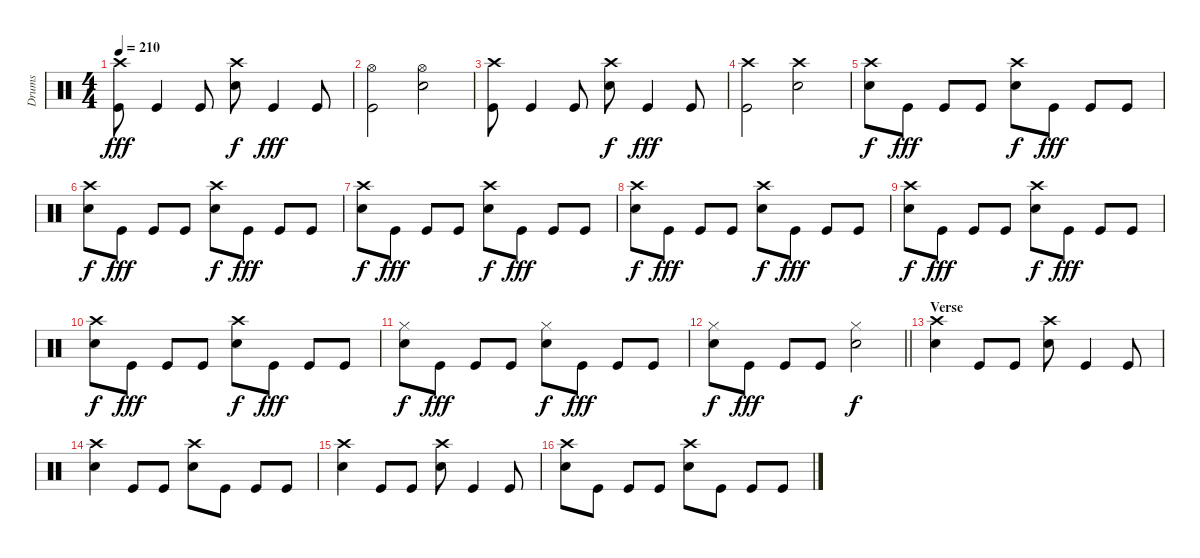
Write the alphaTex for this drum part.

\track ("Drums" "Drums") {instrument percussion}
\staff {score}
\articulation defaults
\ts (4 4)
\tempo 210
\clef neutral
\ks c
("Crash high (hit)" "Kick (hit)").8{dy fff} "Kick (hit)".4 "Kick (hit)".8 ("Crash high (hit)" "Snare (hit) 2").8{dy f} "Kick (hit)".4{dy fff} "Kick (hit)".8 |
("Hi-Hat (open)" "Kick (hit)").2 ("Hi-Hat (open)" "Snare (hit) 2").2 |
("Crash high (hit)" "Kick (hit)").8 "Kick (hit)".4 "Kick (hit)".8 ("Crash high (hit)" "Snare (hit) 2").8{dy f} "Kick (hit)".4{dy fff} "Kick (hit)".8 |
("Crash high (hit)" "Kick (hit)").2 ("Crash high (hit)" "Snare (hit) 2").2 |
("Crash high (hit)" "Snare (hit) 2").8{dy f} "Kick (hit)".8{dy fff} "Kick (hit)".8 "Kick (hit)".8 ("Crash high (hit)" "Snare (hit) 2").8{dy f} "Kick (hit)".8{dy fff} "Kick (hit)".8 "Kick (hit)".8 |
("Crash high (hit)" "Snare (hit) 2").8{dy f} "Kick (hit)".8{dy fff} "Kick (hit)".8 "Kick (hit)".8 ("Crash high (hit)" "Snare (hit) 2").8{dy f} "Kick (hit)".8{dy fff} "Kick (hit)".8 "Kick (hit)".8 |
("Crash high (hit)" "Snare (hit) 2").8{dy f} "Kick (hit)".8{dy fff} "Kick (hit)".8 "Kick (hit)".8 ("Crash high (hit)" "Snare (hit) 2").8{dy f} "Kick (hit)".8{dy fff} "Kick (hit)".8 "Kick (hit)".8 |
("Crash high (hit)" "Snare (hit) 2").8{dy f} "Kick (hit)".8{dy fff} "Kick (hit)".8 "Kick (hit)".8 ("Crash high (hit)" "Snare (hit) 2").8{dy f} "Kick (hit)".8{dy fff} "Kick (hit)".8 "Kick (hit)".8 |
("Crash high (hit)" "Snare (hit) 2").8{dy f} "Kick (hit)".8{dy fff} "Kick (hit)".8 "Kick (hit)".8 ("Crash high (hit)" "Snare (hit) 2").8{dy f} "Kick (hit)".8{dy fff} "Kick (hit)".8 "Kick (hit)".8 |
("Crash high (hit)" "Snare (hit) 2").8{dy f} "Kick (hit)".8{dy fff} "Kick (hit)".8 "Kick (hit)".8 ("Crash high (hit)" "Snare (hit) 2").8{dy f} "Kick (hit)".8{dy fff} "Kick (hit)".8 "Kick (hit)".8 |
("Hi-Hat (closed)" "Snare (hit) 2").8{dy f} "Kick (hit)".8{dy fff} "Kick (hit)".8 "Kick (hit)".8 ("Hi-Hat (closed)" "Snare (hit) 2").8{dy f} "Kick (hit)".8{dy fff} "Kick (hit)".8 "Kick (hit)".8 |
\barLineRight lightlight
("Hi-Hat (closed)" "Snare (hit) 2").8{dy f} "Kick (hit)".8{dy fff} "Kick (hit)".8 "Kick (hit)".8 ("Hi-Hat (closed)" "Snare (hit) 2").2{dy f} |
\section ("" "Verse")
("Crash high (hit)" "Snare (hit) 2").4 "Kick (hit)".8 "Kick (hit)".8 ("Crash high (hit)" "Snare (hit) 2").8 "Kick (hit)".4 "Kick (hit)".8 |
("Crash high (hit)" "Snare (hit) 2").4 "Kick (hit)".8 "Kick (hit)".8 ("Crash high (hit)" "Snare (hit) 2").8 "Kick (hit)".8 "Kick (hit)".8 "Kick (hit)".8 |
("Crash high (hit)" "Snare (hit) 2").4 "Kick (hit)".8 "Kick (hit)".8 ("Crash high (hit)" "Snare (hit) 2").8 "Kick (hit)".4 "Kick (hit)".8 |
("Crash high (hit)" "Snare (hit) 2").8 "Kick (hit)".8 "Kick (hit)".8 "Kick (hit)".8 ("Crash high (hit)" "Snare (hit) 2").8 "Kick (hit)".8 "Kick (hit)".8 "Kick (hit)".8
